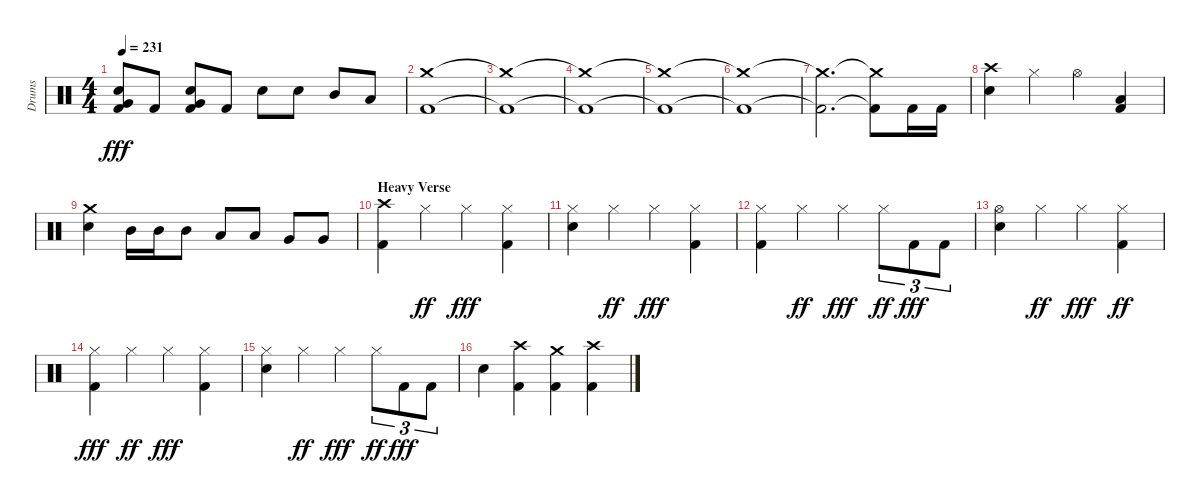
\track ("Drums" "Drums") {instrument percussion}
\staff {score}
\articulation defaults
\ts (4 4)
\tempo 231
\clef neutral
\ks aminor
("Kick (hit) 2" "Snare (hit) 2" "Very Low Tom (hit)").8{dy fff} "Kick (hit) 2".8 ("Kick (hit) 2" "Snare (hit) 2" "Very Low Tom (hit)").8 "Kick (hit) 2".8 "Snare (hit) 2".8 "Snare (hit) 2".8 "Mid Tom (hit)".8 "Low Tom (hit)".8 |
("Crash medium (hit)" "Kick (hit) 2").1 |
("Crash medium (hit)"{t} "Kick (hit) 2"{t}).1 |
("Crash medium (hit)"{t} "Kick (hit) 2"{t}).1 |
("Crash medium (hit)"{t} "Kick (hit) 2"{t}).1 |
("Crash medium (hit)"{t} "Kick (hit) 2"{t}).1 |
("Crash medium (hit)"{t} "Kick (hit) 2"{t}).2{d} ("Crash medium (hit)"{t} "Kick (hit) 2"{t}).8 "Kick (hit) 2".16 "Kick (hit) 2".16 |
("Crash high (hit)" "Snare (hit) 2").4 "Hi-Hat (closed)".4 "Hi-Hat (open)".4 ("Low Floor Tom (hit)" "Kick (hit) 2").4 |
("Crash medium (hit)" "Snare (hit) 2").4 "Mid Tom (hit)".16 "Mid Tom (hit)".16 "Mid Tom (hit)".8 "Low Tom (hit)".8 "Low Tom (hit)".8 "Very Low Tom (hit)".8 "Very Low Tom (hit)".8 |
\section ("" "Heavy Verse")
("Kick (hit) 2" "Crash high (hit)").4 "Hi-Hat (closed)".4{dy ff} "Hi-Hat (closed)".4{dy fff} ("Kick (hit) 2" "Hi-Hat (closed)").4 |
("Snare (hit) 2" "Hi-Hat (closed)").4 "Hi-Hat (closed)".4{dy ff} "Hi-Hat (closed)".4{dy fff} ("Kick (hit) 2" "Hi-Hat (closed)").4 |
("Kick (hit) 2" "Hi-Hat (closed)").4 "Hi-Hat (closed)".4{dy ff} "Hi-Hat (closed)".4{dy fff} "Hi-Hat (closed)".8{tu (3 2) dy ff} "Kick (hit) 2".8{tu (3 2) dy fff} "Kick (hit) 2".8{tu (3 2)} |
("Snare (hit) 2" "Hi-Hat (open)").4 "Hi-Hat (closed)".4{dy ff} "Hi-Hat (closed)".4{dy fff} ("Hi-Hat (closed)" "Kick (hit) 2").4{dy ff} |
("Kick (hit) 2" "Hi-Hat (closed)").4{dy fff} "Hi-Hat (closed)".4{dy ff} "Hi-Hat (closed)".4{dy fff} ("Kick (hit) 2" "Hi-Hat (closed)").4 |
("Snare (hit) 2" "Hi-Hat (closed)").4 "Hi-Hat (closed)".4{dy ff} "Hi-Hat (closed)".4{dy fff} "Hi-Hat (closed)".8{tu (3 2) dy ff} "Kick (hit) 2".8{tu (3 2) dy fff} "Kick (hit) 2".8{tu (3 2)} |
"Snare (hit) 2".4 ("Crash high (hit)" "Kick (hit) 2").4 ("Kick (hit) 2" "Crash medium (hit)").4 ("Crash high (hit)" "Kick (hit) 2").4
